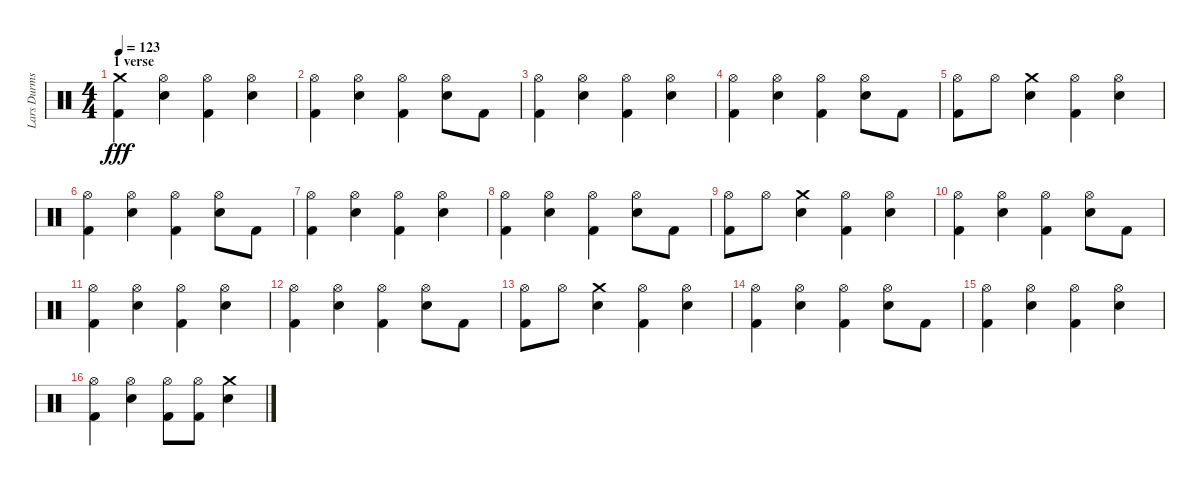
\track ("Lars Durms" "Lars Durms") {instrument percussion}
\staff {score}
\articulation defaults
\ts (4 4)
\section ("" "1 verse")
\tempo 123
\clef neutral
\ks c
("Kick (hit) 2" "Crash medium (hit)").4{dy fff} ("Hi-Hat (open)" "Snare (hit) 2").4 ("Kick (hit) 2" "Hi-Hat (open)").4 ("Hi-Hat (open)" "Snare (hit) 2").4 |
("Hi-Hat (open)" "Kick (hit) 2").4 ("Hi-Hat (open)" "Snare (hit) 2").4 ("Hi-Hat (open)" "Kick (hit) 2").4 ("Snare (hit) 2" "Hi-Hat (open)").8 "Kick (hit) 2".8 |
("Kick (hit) 2" "Hi-Hat (open)").4 ("Hi-Hat (open)" "Snare (hit) 2").4 ("Kick (hit) 2" "Hi-Hat (open)").4 ("Snare (hit) 2" "Hi-Hat (open)").4 |
("Kick (hit) 2" "Hi-Hat (open)").4 ("Hi-Hat (open)" "Snare (hit) 2").4 ("Hi-Hat (open)" "Kick (hit) 2").4 ("Hi-Hat (open)" "Snare (hit) 2").8 "Kick (hit) 2".8 |
("Kick (hit) 2" "Hi-Hat (open)").8 "Hi-Hat (open)".8 ("Crash medium (hit)" "Snare (hit) 2").4 ("Hi-Hat (open)" "Kick (hit) 2").4 ("Snare (hit) 2" "Hi-Hat (open)").4 |
("Hi-Hat (open)" "Kick (hit) 2").4 ("Snare (hit) 2" "Hi-Hat (open)").4 ("Hi-Hat (open)" "Kick (hit) 2").4 ("Snare (hit) 2" "Hi-Hat (open)").8 "Kick (hit) 2".8 |
("Kick (hit) 2" "Hi-Hat (open)").4 ("Hi-Hat (open)" "Snare (hit) 2").4 ("Kick (hit) 2" "Hi-Hat (open)").4 ("Snare (hit) 2" "Hi-Hat (open)").4 |
("Kick (hit) 2" "Hi-Hat (open)").4 ("Hi-Hat (open)" "Snare (hit) 2").4 ("Hi-Hat (open)" "Kick (hit) 2").4 ("Hi-Hat (open)" "Snare (hit) 2").8 "Kick (hit) 2".8 |
("Kick (hit) 2" "Hi-Hat (open)").8 "Hi-Hat (open)".8 ("Crash medium (hit)" "Snare (hit) 2").4 ("Hi-Hat (open)" "Kick (hit) 2").4 ("Snare (hit) 2" "Hi-Hat (open)").4 |
("Hi-Hat (open)" "Kick (hit) 2").4 ("Snare (hit) 2" "Hi-Hat (open)").4 ("Hi-Hat (open)" "Kick (hit) 2").4 ("Snare (hit) 2" "Hi-Hat (open)").8 "Kick (hit) 2".8 |
("Kick (hit) 2" "Hi-Hat (open)").4 ("Hi-Hat (open)" "Snare (hit) 2").4 ("Kick (hit) 2" "Hi-Hat (open)").4 ("Snare (hit) 2" "Hi-Hat (open)").4 |
("Kick (hit) 2" "Hi-Hat (open)").4 ("Hi-Hat (open)" "Snare (hit) 2").4 ("Hi-Hat (open)" "Kick (hit) 2").4 ("Hi-Hat (open)" "Snare (hit) 2").8 "Kick (hit) 2".8 |
("Kick (hit) 2" "Hi-Hat (open)").8 "Hi-Hat (open)".8 ("Crash medium (hit)" "Snare (hit) 2").4 ("Hi-Hat (open)" "Kick (hit) 2").4 ("Snare (hit) 2" "Hi-Hat (open)").4 |
("Hi-Hat (open)" "Kick (hit) 2").4 ("Snare (hit) 2" "Hi-Hat (open)").4 ("Hi-Hat (open)" "Kick (hit) 2").4 ("Snare (hit) 2" "Hi-Hat (open)").8 "Kick (hit) 2".8 |
("Kick (hit) 2" "Hi-Hat (open)").4 ("Hi-Hat (open)" "Snare (hit) 2").4 ("Hi-Hat (open)" "Kick (hit) 2").4 ("Hi-Hat (open)" "Snare (hit) 2").4 |
("Hi-Hat (open)" "Kick (hit) 2").4 ("Hi-Hat (open)" "Snare (hit) 2").4 ("Kick (hit) 2" "Hi-Hat (open)").8 ("Kick (hit) 2" "Hi-Hat (open)").8 ("Crash medium (hit)" "Snare (hit) 2").4
